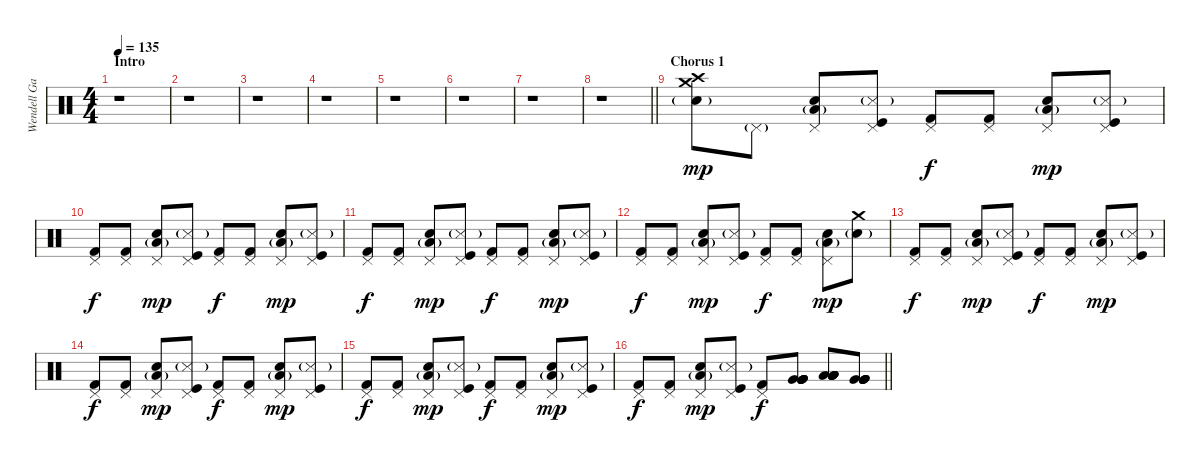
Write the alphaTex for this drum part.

\track ("Wendell Garcia" "Wendell Ga") {instrument percussion}
\staff {score}
\articulation defaults
\ts (4 4)
\section ("" "Intro")
\tempo 135
\clef neutral
\ks c
r.1{dy mp} |
r.1 |
r.1 |
r.1 |
r.1 |
r.1 |
r.1 |
\barLineRight lightlight
r.1 |
\section ("" "Chorus 1")
("Crash medium (hit)" "Crash high (hit)" "Electric Snare (hit)"{g}).8 "Pedal Hi-Hat (hit)"{g}.8 ("Pedal Hi-Hat (hit)" "Electric Snare (hit)" "Low Tom (hit)"{g}).8 ("Pedal Hi-Hat (hit)" "Kick (hit)" "Snare (side stick) 3"{g}).8 ("Pedal Hi-Hat (hit)" "Kick (hit) 2").8{dy f} ("Pedal Hi-Hat (hit)" "Kick (hit) 2").8 ("Pedal Hi-Hat (hit)" "Electric Snare (hit)" "Low Tom (hit)"{g}).8{dy mp} ("Pedal Hi-Hat (hit)" "Kick (hit)" "Snare (side stick) 3"{g}).8 |
("Pedal Hi-Hat (hit)" "Kick (hit) 2").8{dy f} ("Pedal Hi-Hat (hit)" "Kick (hit) 2").8 ("Pedal Hi-Hat (hit)" "Electric Snare (hit)" "Low Tom (hit)"{g}).8{dy mp} ("Pedal Hi-Hat (hit)" "Kick (hit)" "Snare (side stick) 3"{g}).8 ("Pedal Hi-Hat (hit)" "Kick (hit) 2").8{dy f} ("Pedal Hi-Hat (hit)" "Kick (hit) 2").8 ("Pedal Hi-Hat (hit)" "Electric Snare (hit)" "Low Tom (hit)"{g}).8{dy mp} ("Pedal Hi-Hat (hit)" "Kick (hit)" "Snare (side stick) 3"{g}).8 |
("Pedal Hi-Hat (hit)" "Kick (hit) 2").8{dy f} ("Pedal Hi-Hat (hit)" "Kick (hit) 2").8 ("Pedal Hi-Hat (hit)" "Electric Snare (hit)" "Low Tom (hit)"{g}).8{dy mp} ("Pedal Hi-Hat (hit)" "Kick (hit)" "Snare (side stick) 3"{g}).8 ("Pedal Hi-Hat (hit)" "Kick (hit) 2").8{dy f} ("Pedal Hi-Hat (hit)" "Kick (hit) 2").8 ("Pedal Hi-Hat (hit)" "Electric Snare (hit)" "Low Tom (hit)"{g}).8{dy mp} ("Pedal Hi-Hat (hit)" "Kick (hit)" "Snare (side stick) 3"{g}).8 |
("Pedal Hi-Hat (hit)" "Kick (hit) 2").8{dy f} ("Pedal Hi-Hat (hit)" "Kick (hit) 2").8 ("Pedal Hi-Hat (hit)" "Electric Snare (hit)" "Low Tom (hit)"{g}).8{dy mp} ("Pedal Hi-Hat (hit)" "Kick (hit)" "Snare (side stick) 3"{g}).8 ("Pedal Hi-Hat (hit)" "Kick (hit) 2").8{dy f} ("Pedal Hi-Hat (hit)" "Kick (hit) 2").8 ("Pedal Hi-Hat (hit)" "Electric Snare (hit)" "Low Tom (hit)"{g}).8{dy mp} ("Crash medium (hit)" "Electric Snare (hit)"{g}).8 |
("Pedal Hi-Hat (hit)" "Kick (hit) 2").8{dy f} ("Pedal Hi-Hat (hit)" "Kick (hit) 2").8 ("Pedal Hi-Hat (hit)" "Electric Snare (hit)" "Low Tom (hit)"{g}).8{dy mp} ("Pedal Hi-Hat (hit)" "Kick (hit)" "Snare (side stick) 3"{g}).8 ("Pedal Hi-Hat (hit)" "Kick (hit) 2").8{dy f} ("Pedal Hi-Hat (hit)" "Kick (hit) 2").8 ("Pedal Hi-Hat (hit)" "Electric Snare (hit)" "Low Tom (hit)"{g}).8{dy mp} ("Pedal Hi-Hat (hit)" "Kick (hit)" "Snare (side stick) 3"{g}).8 |
("Pedal Hi-Hat (hit)" "Kick (hit) 2").8{dy f} ("Pedal Hi-Hat (hit)" "Kick (hit) 2").8 ("Pedal Hi-Hat (hit)" "Electric Snare (hit)" "Low Tom (hit)"{g}).8{dy mp} ("Pedal Hi-Hat (hit)" "Kick (hit)" "Snare (side stick) 3"{g}).8 ("Pedal Hi-Hat (hit)" "Kick (hit) 2").8{dy f} ("Pedal Hi-Hat (hit)" "Kick (hit) 2").8 ("Pedal Hi-Hat (hit)" "Electric Snare (hit)" "Low Tom (hit)"{g}).8{dy mp} ("Pedal Hi-Hat (hit)" "Kick (hit)" "Snare (side stick) 3"{g}).8 |
("Pedal Hi-Hat (hit)" "Kick (hit) 2").8{dy f} ("Pedal Hi-Hat (hit)" "Kick (hit) 2").8 ("Pedal Hi-Hat (hit)" "Electric Snare (hit)" "Low Tom (hit)"{g}).8{dy mp} ("Pedal Hi-Hat (hit)" "Kick (hit)" "Snare (side stick) 3"{g}).8 ("Pedal Hi-Hat (hit)" "Kick (hit) 2").8{dy f} ("Pedal Hi-Hat (hit)" "Kick (hit) 2").8 ("Pedal Hi-Hat (hit)" "Electric Snare (hit)" "Low Tom (hit)"{g}).8{dy mp} ("Pedal Hi-Hat (hit)" "Kick (hit)" "Snare (side stick) 3"{g}).8 |
\barLineRight lightlight
("Pedal Hi-Hat (hit)" "Kick (hit) 2").8{dy f} ("Pedal Hi-Hat (hit)" "Kick (hit) 2").8 ("Pedal Hi-Hat (hit)" "Electric Snare (hit)" "Low Tom (hit)"{g}).8{dy mp} ("Pedal Hi-Hat (hit)" "Kick (hit)" "Snare (side stick) 3"{g}).8 ("Pedal Hi-Hat (hit)" "Kick (hit) 2").8{dy f} ("Very Low Tom (hit)" "Very Low Tom (hit)" "Very Low Tom (hit)" "Very Low Tom (hit)" "Very Low Tom (hit)").8 ("Low Tom (hit)" "Low Tom (hit)" "Low Tom (hit)" "Low Tom (hit)" "Low Tom (hit)").8 ("Very Low Tom (hit)" "Very Low Tom (hit)" "Very Low Tom (hit)" "Very Low Tom (hit)" "Very Low Tom (hit)").8
